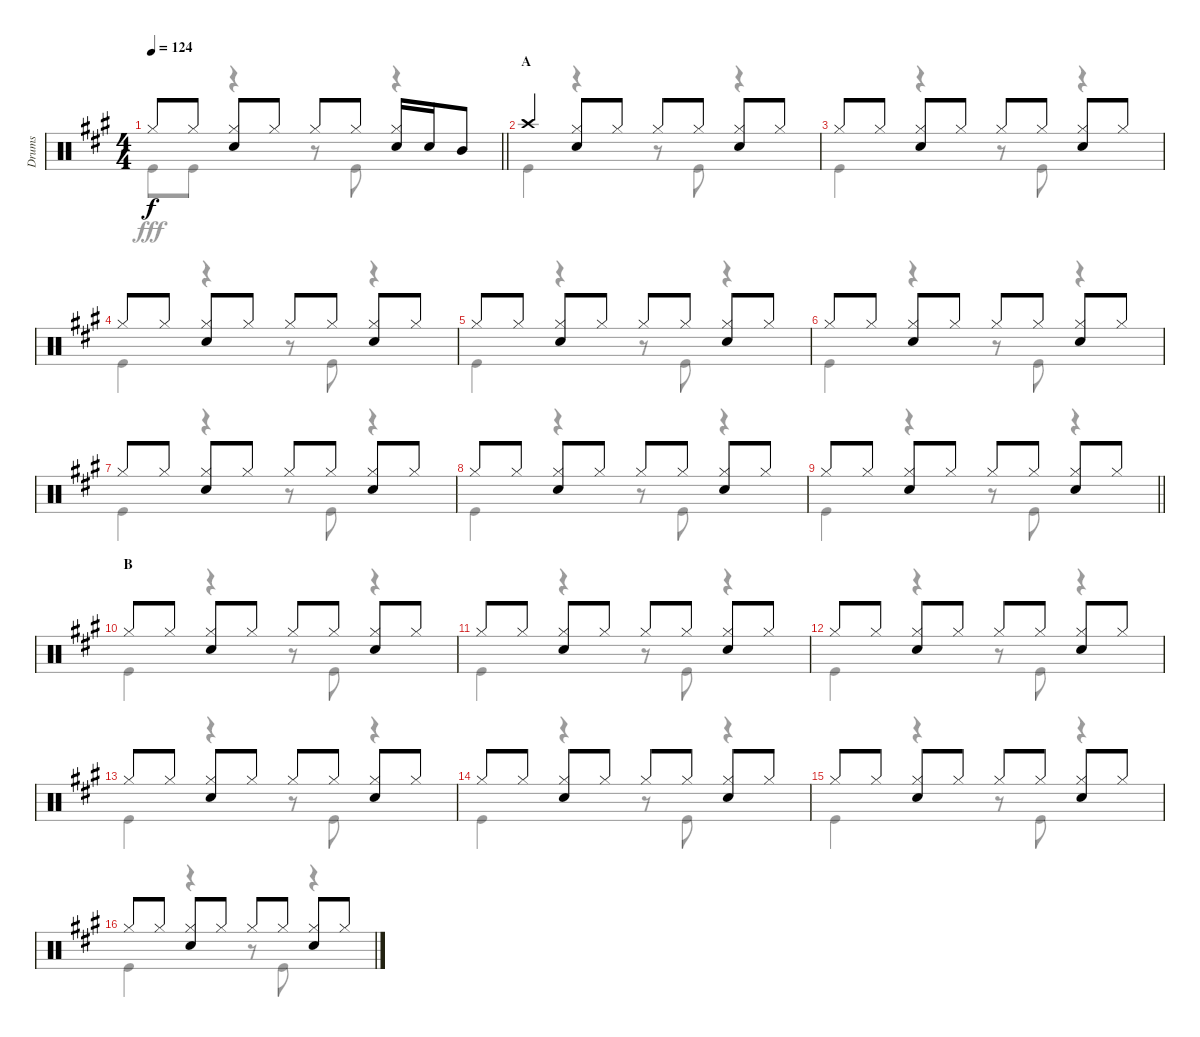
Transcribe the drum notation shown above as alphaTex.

\track ("Drums" "Drums") {instrument percussion}
\staff {score}
\articulation defaults
\voice
\ts (4 4)
\tempo 124
\clef neutral
\barLineRight lightlight
\ks a "Hi-Hat (closed)".8{dy f} "Hi-Hat (closed)".8
("Hi-Hat (closed)" "Snare (hit) 2").8 "Hi-Hat (closed)".8 "Hi-Hat (closed)".8 "Hi-Hat (closed)".8 ("Hi-Hat (closed)" "Snare (hit) 2").16 "Snare (hit) 2".16 "Mid Tom (hit)".8 |
\section ("" "A")
"Crash high (hit)".4 ("Hi-Hat (closed)" "Snare (hit) 2").8 "Hi-Hat (closed)".8 "Hi-Hat (closed)".8 "Hi-Hat (closed)".8 ("Hi-Hat (closed)" "Snare (hit) 2").8 "Hi-Hat (closed)".8 |
"Hi-Hat (closed)".8 "Hi-Hat (closed)".8 ("Hi-Hat (closed)" "Snare (hit) 2").8 "Hi-Hat (closed)".8 "Hi-Hat (closed)".8 "Hi-Hat (closed)".8 ("Hi-Hat (closed)" "Snare (hit) 2").8 "Hi-Hat (closed)".8 |
"Hi-Hat (closed)".8 "Hi-Hat (closed)".8 ("Hi-Hat (closed)" "Snare (hit) 2").8 "Hi-Hat (closed)".8 "Hi-Hat (closed)".8 "Hi-Hat (closed)".8 ("Hi-Hat (closed)" "Snare (hit) 2").8 "Hi-Hat (closed)".8 |
"Hi-Hat (closed)".8 "Hi-Hat (closed)".8 ("Hi-Hat (closed)" "Snare (hit) 2").8 "Hi-Hat (closed)".8 "Hi-Hat (closed)".8 "Hi-Hat (closed)".8 ("Hi-Hat (closed)" "Snare (hit) 2").8 "Hi-Hat (closed)".8 |
"Hi-Hat (closed)".8 "Hi-Hat (closed)".8 ("Hi-Hat (closed)" "Snare (hit) 2").8 "Hi-Hat (closed)".8 "Hi-Hat (closed)".8 "Hi-Hat (closed)".8 ("Hi-Hat (closed)" "Snare (hit) 2").8 "Hi-Hat (closed)".8 |
"Hi-Hat (closed)".8 "Hi-Hat (closed)".8 ("Hi-Hat (closed)" "Snare (hit) 2").8 "Hi-Hat (closed)".8 "Hi-Hat (closed)".8 "Hi-Hat (closed)".8 ("Hi-Hat (closed)" "Snare (hit) 2").8 "Hi-Hat (closed)".8 |
"Hi-Hat (closed)".8 "Hi-Hat (closed)".8 ("Hi-Hat (closed)" "Snare (hit) 2").8 "Hi-Hat (closed)".8 "Hi-Hat (closed)".8 "Hi-Hat (closed)".8 ("Hi-Hat (closed)" "Snare (hit) 2").8 "Hi-Hat (closed)".8 |
\barLineRight lightlight "Hi-Hat (closed)".8 "Hi-Hat (closed)".8
("Hi-Hat (closed)" "Snare (hit) 2").8 "Hi-Hat (closed)".8 "Hi-Hat (closed)".8 "Hi-Hat (closed)".8 ("Hi-Hat (closed)" "Snare (hit) 2").8 "Hi-Hat (closed)".8 |
\section ("" "B")
"Hi-Hat (closed)".8 "Hi-Hat (closed)".8 ("Hi-Hat (closed)" "Snare (hit) 2").8 "Hi-Hat (closed)".8 "Hi-Hat (closed)".8 "Hi-Hat (closed)".8 ("Hi-Hat (closed)" "Snare (hit) 2").8 "Hi-Hat (closed)".8 |
"Hi-Hat (closed)".8 "Hi-Hat (closed)".8 ("Hi-Hat (closed)" "Snare (hit) 2").8 "Hi-Hat (closed)".8 "Hi-Hat (closed)".8 "Hi-Hat (closed)".8 ("Hi-Hat (closed)" "Snare (hit) 2").8 "Hi-Hat (closed)".8 |
"Hi-Hat (closed)".8 "Hi-Hat (closed)".8 ("Hi-Hat (closed)" "Snare (hit) 2").8 "Hi-Hat (closed)".8 "Hi-Hat (closed)".8 "Hi-Hat (closed)".8 ("Hi-Hat (closed)" "Snare (hit) 2").8 "Hi-Hat (closed)".8 |
"Hi-Hat (closed)".8 "Hi-Hat (closed)".8 ("Hi-Hat (closed)" "Snare (hit) 2").8 "Hi-Hat (closed)".8 "Hi-Hat (closed)".8 "Hi-Hat (closed)".8 ("Hi-Hat (closed)" "Snare (hit) 2").8 "Hi-Hat (closed)".8 |
"Hi-Hat (closed)".8 "Hi-Hat (closed)".8 ("Hi-Hat (closed)" "Snare (hit) 2").8 "Hi-Hat (closed)".8 "Hi-Hat (closed)".8 "Hi-Hat (closed)".8 ("Hi-Hat (closed)" "Snare (hit) 2").8 "Hi-Hat (closed)".8 |
"Hi-Hat (closed)".8 "Hi-Hat (closed)".8 ("Hi-Hat (closed)" "Snare (hit) 2").8 "Hi-Hat (closed)".8 "Hi-Hat (closed)".8 "Hi-Hat (closed)".8 ("Hi-Hat (closed)" "Snare (hit) 2").8 "Hi-Hat (closed)".8 |
"Hi-Hat (closed)".8 "Hi-Hat (closed)".8 ("Hi-Hat (closed)" "Snare (hit) 2").8 "Hi-Hat (closed)".8 "Hi-Hat (closed)".8 "Hi-Hat (closed)".8 ("Hi-Hat (closed)" "Snare (hit) 2").8 "Hi-Hat (closed)".8
\voice
\clef neutral
\ottava regular
\simile none
\barLineRight lightlight
\ks a "Kick (hit)".8{dy fff} "Kick (hit)".8
r.4 r.8 "Kick (hit)".8 r.4 |
"Kick (hit)".4 r.4 r.8 "Kick (hit)".8 r.4 |
"Kick (hit)".4 r.4 r.8 "Kick (hit)".8 r.4 |
"Kick (hit)".4 r.4 r.8 "Kick (hit)".8 r.4 |
"Kick (hit)".4 r.4 r.8 "Kick (hit)".8 r.4 |
"Kick (hit)".4 r.4 r.8 "Kick (hit)".8 r.4 |
"Kick (hit)".4 r.4 r.8 "Kick (hit)".8 r.4 |
"Kick (hit)".4 r.4 r.8 "Kick (hit)".8 r.4 |
\barLineRight lightlight "Kick (hit)".4
r.4 r.8 "Kick (hit)".8 r.4 |
"Kick (hit)".4 r.4 r.8 "Kick (hit)".8 r.4 |
"Kick (hit)".4 r.4 r.8 "Kick (hit)".8 r.4 |
"Kick (hit)".4 r.4 r.8 "Kick (hit)".8 r.4 |
"Kick (hit)".4 r.4 r.8 "Kick (hit)".8 r.4 |
"Kick (hit)".4 r.4 r.8 "Kick (hit)".8 r.4 |
"Kick (hit)".4 r.4 r.8 "Kick (hit)".8 r.4 |
"Kick (hit)".4 r.4 r.8 "Kick (hit)".8 r.4
